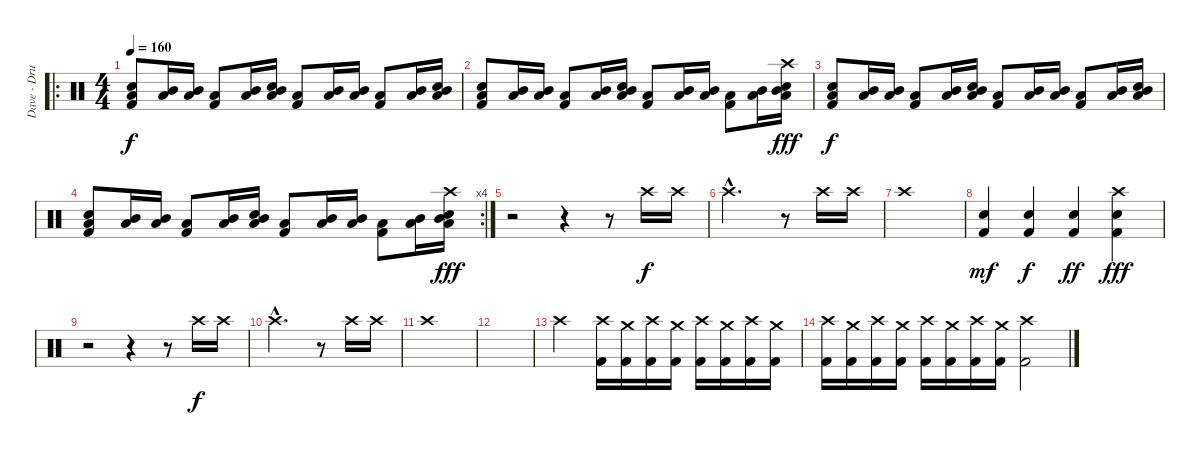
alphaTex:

\track ("Dave - Drums" "Dave - Dru") {instrument percussion}
\staff {score}
\articulation defaults
\ro
\ts (4 4)
\tempo 160
\clef neutral
\ks c
("Snare (hit) 2" "Low Tom (hit)" "Kick (hit) 2").8{dy f} ("Mid Tom (hit)" "Low Tom (hit)").16 ("Mid Tom (hit)" "Low Tom (hit)").16 ("Low Tom (hit)" "Kick (hit) 2").8 ("Mid Tom (hit)" "Low Tom (hit)").16 ("Snare (hit) 2" "Mid Tom (hit)" "Low Tom (hit)").16 ("Low Tom (hit)" "Kick (hit) 2").8 ("Mid Tom (hit)" "Low Tom (hit)").16 ("Mid Tom (hit)" "Low Tom (hit)").16 ("Low Tom (hit)" "Kick (hit) 2").8 ("Mid Tom (hit)" "Low Tom (hit)").16 ("Snare (hit) 2" "Mid Tom (hit)" "Low Tom (hit)").16 |
("Snare (hit) 2" "Low Tom (hit)" "Kick (hit) 2").8 ("Mid Tom (hit)" "Low Tom (hit)").16 ("Mid Tom (hit)" "Low Tom (hit)").16 ("Low Tom (hit)" "Kick (hit) 2").8 ("Mid Tom (hit)" "Low Tom (hit)").16 ("Snare (hit) 2" "Mid Tom (hit)" "Low Tom (hit)").16 ("Low Tom (hit)" "Kick (hit) 2").8 ("Mid Tom (hit)" "Low Tom (hit)").16 ("Mid Tom (hit)" "Low Tom (hit)").16 ("Low Tom (hit)" "Kick (hit) 2").8 ("Mid Tom (hit)" "Low Tom (hit)").16 ("Crash high (hit)" "Snare (hit) 2" "Mid Tom (hit)" "Low Tom (hit)").16{dy fff} |
("Snare (hit) 2" "Low Tom (hit)" "Kick (hit) 2").8{dy f} ("Mid Tom (hit)" "Low Tom (hit)").16 ("Mid Tom (hit)" "Low Tom (hit)").16 ("Low Tom (hit)" "Kick (hit) 2").8 ("Mid Tom (hit)" "Low Tom (hit)").16 ("Snare (hit) 2" "Mid Tom (hit)" "Low Tom (hit)").16 ("Low Tom (hit)" "Kick (hit) 2").8 ("Mid Tom (hit)" "Low Tom (hit)").16 ("Mid Tom (hit)" "Low Tom (hit)").16 ("Low Tom (hit)" "Kick (hit) 2").8 ("Mid Tom (hit)" "Low Tom (hit)").16 ("Snare (hit) 2" "Mid Tom (hit)" "Low Tom (hit)").16 |
\rc 4
("Snare (hit) 2" "Low Tom (hit)" "Kick (hit) 2").8 ("Mid Tom (hit)" "Low Tom (hit)").16 ("Mid Tom (hit)" "Low Tom (hit)").16 ("Low Tom (hit)" "Kick (hit) 2").8 ("Mid Tom (hit)" "Low Tom (hit)").16 ("Snare (hit) 2" "Mid Tom (hit)" "Low Tom (hit)").16 ("Low Tom (hit)" "Kick (hit) 2").8 ("Mid Tom (hit)" "Low Tom (hit)").16 ("Mid Tom (hit)" "Low Tom (hit)").16 ("Low Tom (hit)" "Kick (hit) 2").8 ("Mid Tom (hit)" "Low Tom (hit)").16 ("Crash high (hit)" "Snare (hit) 2" "Mid Tom (hit)" "Low Tom (hit)").16{dy fff} |
r.2 r.4 r.8 "Crash high (hit)".16{dy f} "Crash high (hit)".16 |
"Crash high (hit)"{hac}.2{d} r.8 "Crash high (hit)".16 "Crash high (hit)".16 |
"Crash high (hit)".1 |
("Snare (hit) 2" "Kick (hit) 2").4{dy mf} ("Snare (hit) 2" "Kick (hit) 2").4{dy f} ("Snare (hit) 2" "Kick (hit) 2").4{dy ff} ("Crash high (hit)" "Snare (hit) 2" "Kick (hit) 2").4{dy fff} |
r.2 r.4 r.8 "Crash high (hit)".16{dy f} "Crash high (hit)".16 |
"Crash high (hit)"{hac}.2{d} r.8 "Crash high (hit)".16 "Crash high (hit)".16 |
"Crash high (hit)".1 |
|
"Crash high (hit)".2 ("Crash high (hit)" "Kick (hit) 2").16 ("Crash medium (hit)" "Kick (hit) 2").16 ("Crash high (hit)" "Kick (hit) 2").16 ("Crash medium (hit)" "Kick (hit) 2").16 ("Crash high (hit)" "Kick (hit) 2").16 ("Crash medium (hit)" "Kick (hit) 2").16 ("Crash high (hit)" "Kick (hit) 2").16 ("Crash medium (hit)" "Kick (hit) 2").16 |
("Crash high (hit)" "Kick (hit) 2").16 ("Crash medium (hit)" "Kick (hit) 2").16 ("Crash high (hit)" "Kick (hit) 2").16 ("Crash medium (hit)" "Kick (hit) 2").16 ("Crash high (hit)" "Kick (hit) 2").16 ("Crash medium (hit)" "Kick (hit) 2").16 ("Crash high (hit)" "Kick (hit) 2").16 ("Crash medium (hit)" "Kick (hit) 2").16 ("Crash high (hit)" "Kick (hit) 2").2
